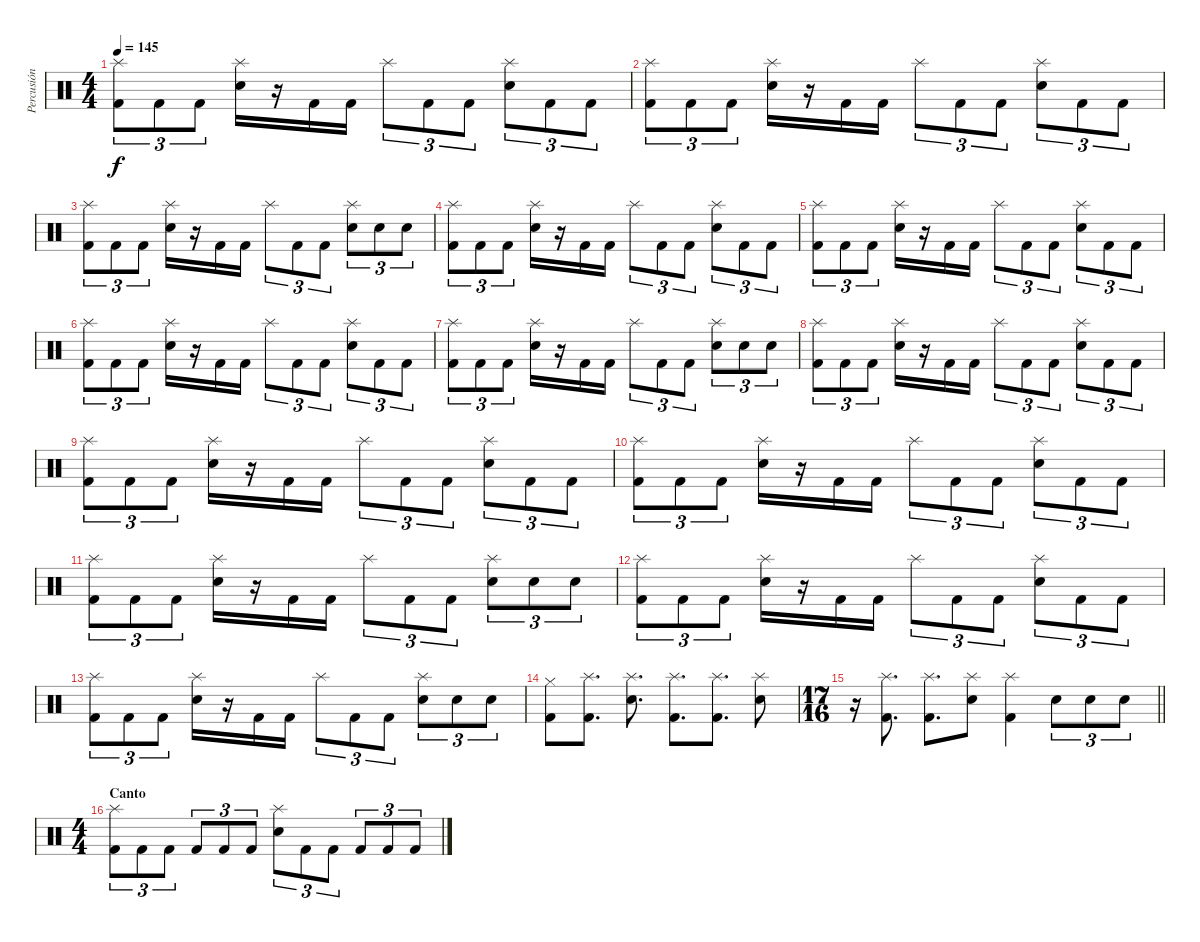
\track ("Percusión" "Percusión") {instrument percussion}
\staff {score}
\articulation defaults
\ts (4 4)
\tempo 145
\clef neutral
\ks c
("Splash (hit)" "Kick (hit) 2").8{tu (3 2) dy f} "Kick (hit) 2".8{tu (3 2)} "Kick (hit) 2".8{tu (3 2)} ("Splash (hit)" "Electric Snare (hit)").16 r.16 "Kick (hit) 2".16 "Kick (hit) 2".16 "Splash (hit)".8{tu (3 2)} "Kick (hit) 2".8{tu (3 2)} "Kick (hit) 2".8{tu (3 2)} ("Splash (hit)" "Electric Snare (hit)").8{tu (3 2)} "Kick (hit) 2".8{tu (3 2)} "Kick (hit) 2".8{tu (3 2)} |
("Splash (hit)" "Kick (hit) 2").8{tu (3 2)} "Kick (hit) 2".8{tu (3 2)} "Kick (hit) 2".8{tu (3 2)} ("Splash (hit)" "Electric Snare (hit)").16 r.16 "Kick (hit) 2".16 "Kick (hit) 2".16 "Splash (hit)".8{tu (3 2)} "Kick (hit) 2".8{tu (3 2)} "Kick (hit) 2".8{tu (3 2)} ("Splash (hit)" "Electric Snare (hit)").8{tu (3 2)} "Kick (hit) 2".8{tu (3 2)} "Kick (hit) 2".8{tu (3 2)} |
("Splash (hit)" "Kick (hit) 2").8{tu (3 2)} "Kick (hit) 2".8{tu (3 2)} "Kick (hit) 2".8{tu (3 2)} ("Splash (hit)" "Electric Snare (hit)").16 r.16 "Kick (hit) 2".16 "Kick (hit) 2".16 "Splash (hit)".8{tu (3 2)} "Kick (hit) 2".8{tu (3 2)} "Kick (hit) 2".8{tu (3 2)} ("Splash (hit)" "Electric Snare (hit)").8{tu (3 2)} "Electric Snare (hit)".8{tu (3 2)} "Electric Snare (hit)".8{tu (3 2)} |
("Splash (hit)" "Kick (hit) 2").8{tu (3 2)} "Kick (hit) 2".8{tu (3 2)} "Kick (hit) 2".8{tu (3 2)} ("Splash (hit)" "Electric Snare (hit)").16 r.16 "Kick (hit) 2".16 "Kick (hit) 2".16 "Splash (hit)".8{tu (3 2)} "Kick (hit) 2".8{tu (3 2)} "Kick (hit) 2".8{tu (3 2)} ("Splash (hit)" "Electric Snare (hit)").8{tu (3 2)} "Kick (hit) 2".8{tu (3 2)} "Kick (hit) 2".8{tu (3 2)} |
("Splash (hit)" "Kick (hit) 2").8{tu (3 2)} "Kick (hit) 2".8{tu (3 2)} "Kick (hit) 2".8{tu (3 2)} ("Splash (hit)" "Electric Snare (hit)").16 r.16 "Kick (hit) 2".16 "Kick (hit) 2".16 "Splash (hit)".8{tu (3 2)} "Kick (hit) 2".8{tu (3 2)} "Kick (hit) 2".8{tu (3 2)} ("Splash (hit)" "Electric Snare (hit)").8{tu (3 2)} "Kick (hit) 2".8{tu (3 2)} "Kick (hit) 2".8{tu (3 2)} |
("Splash (hit)" "Kick (hit) 2").8{tu (3 2)} "Kick (hit) 2".8{tu (3 2)} "Kick (hit) 2".8{tu (3 2)} ("Splash (hit)" "Electric Snare (hit)").16 r.16 "Kick (hit) 2".16 "Kick (hit) 2".16 "Splash (hit)".8{tu (3 2)} "Kick (hit) 2".8{tu (3 2)} "Kick (hit) 2".8{tu (3 2)} ("Splash (hit)" "Electric Snare (hit)").8{tu (3 2)} "Kick (hit) 2".8{tu (3 2)} "Kick (hit) 2".8{tu (3 2)} |
("Splash (hit)" "Kick (hit) 2").8{tu (3 2)} "Kick (hit) 2".8{tu (3 2)} "Kick (hit) 2".8{tu (3 2)} ("Splash (hit)" "Electric Snare (hit)").16 r.16 "Kick (hit) 2".16 "Kick (hit) 2".16 "Splash (hit)".8{tu (3 2)} "Kick (hit) 2".8{tu (3 2)} "Kick (hit) 2".8{tu (3 2)} ("Splash (hit)" "Electric Snare (hit)").8{tu (3 2)} "Electric Snare (hit)".8{tu (3 2)} "Electric Snare (hit)".8{tu (3 2)} |
("Splash (hit)" "Kick (hit) 2").8{tu (3 2)} "Kick (hit) 2".8{tu (3 2)} "Kick (hit) 2".8{tu (3 2)} ("Splash (hit)" "Electric Snare (hit)").16 r.16 "Kick (hit) 2".16 "Kick (hit) 2".16 "Splash (hit)".8{tu (3 2)} "Kick (hit) 2".8{tu (3 2)} "Kick (hit) 2".8{tu (3 2)} ("Splash (hit)" "Electric Snare (hit)").8{tu (3 2)} "Kick (hit) 2".8{tu (3 2)} "Kick (hit) 2".8{tu (3 2)} |
("Splash (hit)" "Kick (hit) 2").8{tu (3 2)} "Kick (hit) 2".8{tu (3 2)} "Kick (hit) 2".8{tu (3 2)} ("Splash (hit)" "Electric Snare (hit)").16 r.16 "Kick (hit) 2".16 "Kick (hit) 2".16 "Splash (hit)".8{tu (3 2)} "Kick (hit) 2".8{tu (3 2)} "Kick (hit) 2".8{tu (3 2)} ("Splash (hit)" "Electric Snare (hit)").8{tu (3 2)} "Kick (hit) 2".8{tu (3 2)} "Kick (hit) 2".8{tu (3 2)} |
("Splash (hit)" "Kick (hit) 2").8{tu (3 2)} "Kick (hit) 2".8{tu (3 2)} "Kick (hit) 2".8{tu (3 2)} ("Splash (hit)" "Electric Snare (hit)").16 r.16 "Kick (hit) 2".16 "Kick (hit) 2".16 "Splash (hit)".8{tu (3 2)} "Kick (hit) 2".8{tu (3 2)} "Kick (hit) 2".8{tu (3 2)} ("Splash (hit)" "Electric Snare (hit)").8{tu (3 2)} "Kick (hit) 2".8{tu (3 2)} "Kick (hit) 2".8{tu (3 2)} |
("Splash (hit)" "Kick (hit) 2").8{tu (3 2)} "Kick (hit) 2".8{tu (3 2)} "Kick (hit) 2".8{tu (3 2)} ("Splash (hit)" "Electric Snare (hit)").16 r.16 "Kick (hit) 2".16 "Kick (hit) 2".16 "Splash (hit)".8{tu (3 2)} "Kick (hit) 2".8{tu (3 2)} "Kick (hit) 2".8{tu (3 2)} ("Splash (hit)" "Electric Snare (hit)").8{tu (3 2)} "Electric Snare (hit)".8{tu (3 2)} "Electric Snare (hit)".8{tu (3 2)} |
("Splash (hit)" "Kick (hit) 2").8{tu (3 2)} "Kick (hit) 2".8{tu (3 2)} "Kick (hit) 2".8{tu (3 2)} ("Splash (hit)" "Electric Snare (hit)").16 r.16 "Kick (hit) 2".16 "Kick (hit) 2".16 "Splash (hit)".8{tu (3 2)} "Kick (hit) 2".8{tu (3 2)} "Kick (hit) 2".8{tu (3 2)} ("Splash (hit)" "Electric Snare (hit)").8{tu (3 2)} "Kick (hit) 2".8{tu (3 2)} "Kick (hit) 2".8{tu (3 2)} |
("Splash (hit)" "Kick (hit) 2").8{tu (3 2)} "Kick (hit) 2".8{tu (3 2)} "Kick (hit) 2".8{tu (3 2)} ("Splash (hit)" "Electric Snare (hit)").16 r.16 "Kick (hit) 2".16 "Kick (hit) 2".16 "Splash (hit)".8{tu (3 2)} "Kick (hit) 2".8{tu (3 2)} "Kick (hit) 2".8{tu (3 2)} ("Splash (hit)" "Electric Snare (hit)").8{tu (3 2)} "Electric Snare (hit)".8{tu (3 2)} "Electric Snare (hit)".8{tu (3 2)} |
("Hi-Hat (closed)" "Kick (hit) 2").8 ("Splash (hit)" "Kick (hit) 2").8{d} ("Splash (hit)" "Electric Snare (hit)").8{d} ("Splash (hit)" "Kick (hit) 2").8{d} ("Splash (hit)" "Kick (hit) 2").8{d} ("Splash (hit)" "Electric Snare (hit)").8 |
\ts (17 16)
\barLineRight lightlight
r.16 ("Splash (hit)" "Kick (hit) 2").8{d} ("Splash (hit)" "Kick (hit) 2").8{d} ("Splash (hit)" "Electric Snare (hit)").8 ("Splash (hit)" "Kick (hit) 2").4 "Electric Snare (hit)".8{tu (3 2)} "Electric Snare (hit)".8{tu (3 2)} "Electric Snare (hit)".8{tu (3 2)} |
\ts (4 4)
\section ("" "Canto")
("Splash (hit)" "Kick (hit) 2").8{tu (3 2)} "Kick (hit) 2".8{tu (3 2)} "Kick (hit) 2".8{tu (3 2)} "Kick (hit) 2".8{tu (3 2)} "Kick (hit) 2".8{tu (3 2)} "Kick (hit) 2".8{tu (3 2)} ("Splash (hit)" "Snare (hit) 2").8{tu (3 2)} "Kick (hit) 2".8{tu (3 2)} "Kick (hit) 2".8{tu (3 2)} "Kick (hit) 2".8{tu (3 2)} "Kick (hit) 2".8{tu (3 2)} "Kick (hit) 2".8{tu (3 2)}
